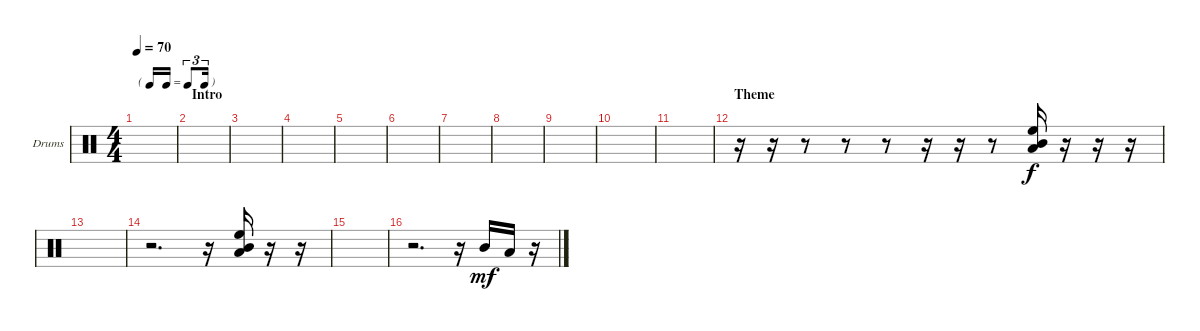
\bracketExtendMode groupsimilarinstruments
\firstSystemTrackNameOrientation horizontal
\otherSystemsTrackNameOrientation horizontal
\track ("Tom" "Drums") {instrument percussion}
\staff {score}
\articulation defaults
\ts (4 4)
\tf triplet16th
\tempo 70
\clef neutral
\ks c
|
\section ("" "Intro")
\scale
0.405622 |
\scale
0.369478
\ks aminor
|
\scale
0.2249 |
\scale
0.333333 |
\scale
0.333333 |
\scale
0.333333 |
\scale
0.333333 |
|
|
|
\section ("" "Theme")
r.16 r.16 r.8 r.8 r.8 r.16 r.16 r.8 ("Mid Tom (hit)" "High Floor Tom (hit)" "Low Tom (hit)").16 r.16 r.16 r.16 |
|
r.2{d} r.16 ("High Floor Tom (hit)" "Mid Tom (hit)" "Low Tom (hit)").16 r.16 r.16 |
|
\scale
0.333333 r.2{d} r.16 "Mid Tom (hit)".16{dy mf} "Low Tom (hit)".16 r.16
